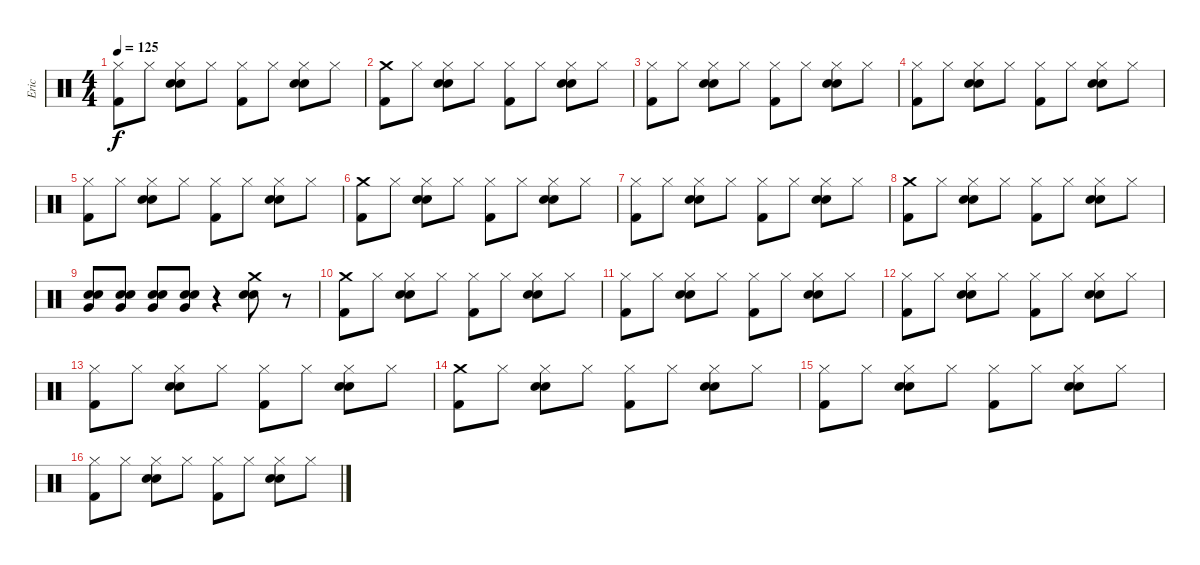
\track ("Eric" "Eric") {instrument percussion}
\staff {score}
\articulation defaults
\ts (4 4)
\tempo 125
\clef neutral
\ks c
("Hi-Hat (closed)" "Kick (hit) 2").8{dy f} "Hi-Hat (closed)".8 ("Hi-Hat (closed)" "Electric Snare (hit)" "Snare (hit) 2").8 "Hi-Hat (closed)".8 ("Hi-Hat (closed)" "Kick (hit) 2").8 "Hi-Hat (closed)".8 ("Hi-Hat (closed)" "Snare (hit) 2" "Electric Snare (hit)").8 "Hi-Hat (closed)".8 |
("Crash medium (hit)" "Kick (hit) 2").8 "Hi-Hat (closed)".8 ("Hi-Hat (closed)" "Electric Snare (hit)" "Snare (hit) 2").8 "Hi-Hat (closed)".8 ("Hi-Hat (closed)" "Kick (hit) 2").8 "Hi-Hat (closed)".8 ("Hi-Hat (closed)" "Snare (hit) 2" "Electric Snare (hit)").8 "Hi-Hat (closed)".8 |
("Hi-Hat (closed)" "Kick (hit) 2").8 "Hi-Hat (closed)".8 ("Hi-Hat (closed)" "Electric Snare (hit)" "Snare (hit) 2").8 "Hi-Hat (closed)".8 ("Hi-Hat (closed)" "Kick (hit) 2").8 "Hi-Hat (closed)".8 ("Hi-Hat (closed)" "Snare (hit) 2" "Electric Snare (hit)").8 "Hi-Hat (closed)".8 |
("Hi-Hat (closed)" "Kick (hit) 2").8 "Hi-Hat (closed)".8 ("Hi-Hat (closed)" "Electric Snare (hit)" "Snare (hit) 2").8 "Hi-Hat (closed)".8 ("Hi-Hat (closed)" "Kick (hit) 2").8 "Hi-Hat (closed)".8 ("Hi-Hat (closed)" "Snare (hit) 2" "Electric Snare (hit)").8 "Hi-Hat (closed)".8 |
("Hi-Hat (closed)" "Kick (hit) 2").8 "Hi-Hat (closed)".8 ("Hi-Hat (closed)" "Electric Snare (hit)" "Snare (hit) 2").8 "Hi-Hat (closed)".8 ("Hi-Hat (closed)" "Kick (hit) 2").8 "Hi-Hat (closed)".8 ("Hi-Hat (closed)" "Snare (hit) 2" "Electric Snare (hit)").8 "Hi-Hat (closed)".8 |
("Crash medium (hit)" "Kick (hit) 2").8 "Hi-Hat (closed)".8 ("Hi-Hat (closed)" "Electric Snare (hit)" "Snare (hit) 2").8 "Hi-Hat (closed)".8 ("Hi-Hat (closed)" "Kick (hit) 2").8 "Hi-Hat (closed)".8 ("Hi-Hat (closed)" "Snare (hit) 2" "Electric Snare (hit)").8 "Hi-Hat (closed)".8 |
("Hi-Hat (closed)" "Kick (hit) 2").8 "Hi-Hat (closed)".8 ("Hi-Hat (closed)" "Electric Snare (hit)" "Snare (hit) 2").8 "Hi-Hat (closed)".8 ("Hi-Hat (closed)" "Kick (hit) 2").8 "Hi-Hat (closed)".8 ("Hi-Hat (closed)" "Snare (hit) 2" "Electric Snare (hit)").8 "Hi-Hat (closed)".8 |
("Crash medium (hit)" "Kick (hit) 2").8 "Hi-Hat (closed)".8 ("Hi-Hat (closed)" "Electric Snare (hit)" "Snare (hit) 2").8 "Hi-Hat (closed)".8 ("Hi-Hat (closed)" "Kick (hit) 2").8 "Hi-Hat (closed)".8 ("Hi-Hat (closed)" "Snare (hit) 2" "Electric Snare (hit)").8 "Hi-Hat (closed)".8 |
("Very Low Tom (hit)" "Electric Snare (hit)" "Snare (hit) 2").8 ("Very Low Tom (hit)" "Electric Snare (hit)" "Snare (hit) 2").8 ("Very Low Tom (hit)" "Electric Snare (hit)" "Snare (hit) 2").8 ("Very Low Tom (hit)" "Electric Snare (hit)" "Snare (hit) 2").8 r.4 ("Crash medium (hit)" "Electric Snare (hit)" "Snare (hit) 2").8 r.8 |
("Crash medium (hit)" "Kick (hit) 2").8 "Hi-Hat (closed)".8 ("Hi-Hat (closed)" "Electric Snare (hit)" "Snare (hit) 2").8 "Hi-Hat (closed)".8 ("Hi-Hat (closed)" "Kick (hit) 2").8 "Hi-Hat (closed)".8 ("Hi-Hat (closed)" "Snare (hit) 2" "Electric Snare (hit)").8 "Hi-Hat (closed)".8 |
("Hi-Hat (closed)" "Kick (hit) 2").8 "Hi-Hat (closed)".8 ("Hi-Hat (closed)" "Electric Snare (hit)" "Snare (hit) 2").8 "Hi-Hat (closed)".8 ("Hi-Hat (closed)" "Kick (hit) 2").8 "Hi-Hat (closed)".8 ("Hi-Hat (closed)" "Snare (hit) 2" "Electric Snare (hit)").8 "Hi-Hat (closed)".8 |
("Hi-Hat (closed)" "Kick (hit) 2").8 "Hi-Hat (closed)".8 ("Hi-Hat (closed)" "Electric Snare (hit)" "Snare (hit) 2").8 "Hi-Hat (closed)".8 ("Hi-Hat (closed)" "Kick (hit) 2").8 "Hi-Hat (closed)".8 ("Hi-Hat (closed)" "Snare (hit) 2" "Electric Snare (hit)").8 "Hi-Hat (closed)".8 |
("Hi-Hat (closed)" "Kick (hit) 2").8 "Hi-Hat (closed)".8 ("Hi-Hat (closed)" "Electric Snare (hit)" "Snare (hit) 2").8 "Hi-Hat (closed)".8 ("Hi-Hat (closed)" "Kick (hit) 2").8 "Hi-Hat (closed)".8 ("Hi-Hat (closed)" "Snare (hit) 2" "Electric Snare (hit)").8 "Hi-Hat (closed)".8 |
("Crash medium (hit)" "Kick (hit) 2").8 "Hi-Hat (closed)".8 ("Hi-Hat (closed)" "Electric Snare (hit)" "Snare (hit) 2").8 "Hi-Hat (closed)".8 ("Hi-Hat (closed)" "Kick (hit) 2").8 "Hi-Hat (closed)".8 ("Hi-Hat (closed)" "Snare (hit) 2" "Electric Snare (hit)").8 "Hi-Hat (closed)".8 |
("Hi-Hat (closed)" "Kick (hit) 2").8 "Hi-Hat (closed)".8 ("Hi-Hat (closed)" "Electric Snare (hit)" "Snare (hit) 2").8 "Hi-Hat (closed)".8 ("Hi-Hat (closed)" "Kick (hit) 2").8 "Hi-Hat (closed)".8 ("Hi-Hat (closed)" "Snare (hit) 2" "Electric Snare (hit)").8 "Hi-Hat (closed)".8 |
("Hi-Hat (closed)" "Kick (hit) 2").8 "Hi-Hat (closed)".8 ("Hi-Hat (closed)" "Electric Snare (hit)" "Snare (hit) 2").8 "Hi-Hat (closed)".8 ("Hi-Hat (closed)" "Kick (hit) 2").8 "Hi-Hat (closed)".8 ("Hi-Hat (closed)" "Snare (hit) 2" "Electric Snare (hit)").8 "Hi-Hat (closed)".8
